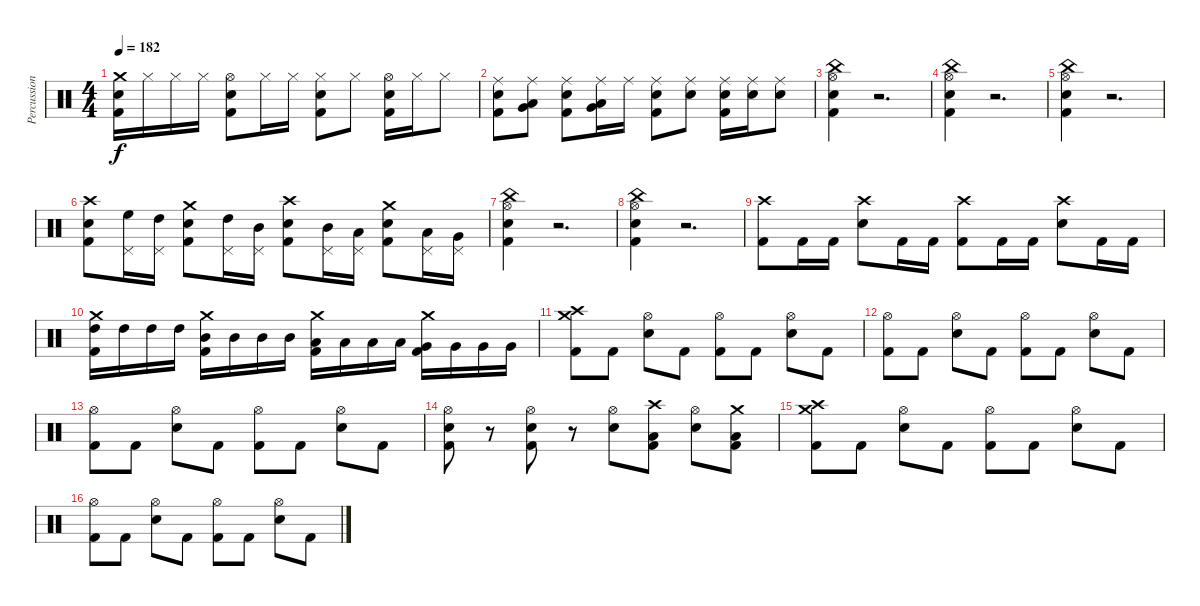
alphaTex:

\track ("Percussion" "Percussion") {instrument percussion}
\staff {score}
\articulation defaults
\ts (4 4)
\tempo 182
\clef neutral
\ks c
("Crash medium (hit)" "Snare (hit) 2" "Kick (hit) 2").16{dy f} "Hi-Hat (closed)".16 "Hi-Hat (closed)".16 "Hi-Hat (closed)".16 ("Hi-Hat (open)" "Snare (hit) 2" "Kick (hit) 2").8 "Hi-Hat (closed)".16 "Hi-Hat (closed)".16 ("Hi-Hat (closed)" "Snare (hit) 2" "Kick (hit) 2").8 "Hi-Hat (closed)".8 ("Hi-Hat (open)" "Snare (hit) 2" "Kick (hit) 2").16 "Hi-Hat (closed)".16 "Hi-Hat (closed)".8 |
("Ride (middle)" "Snare (hit) 2" "Kick (hit) 2").8 ("Ride (middle)" "Very Low Tom (hit)" "Low Floor Tom (hit)").8 ("Ride (middle)" "Snare (hit) 2" "Kick (hit) 2").8 ("Ride (middle)" "Very Low Tom (hit)" "Low Floor Tom (hit)").16 "Ride (middle)".16 ("Ride (middle)" "Snare (hit) 2" "Kick (hit) 2").8 ("Ride (middle)" "Snare (hit) 2").8 ("Ride (middle)" "Snare (hit) 2" "Kick (hit) 2").16 ("Ride (middle)" "Snare (hit) 2").16 ("Ride (middle)" "Snare (hit) 2").8 |
("Hi-Hat (open)" "China (hit)" "Snare (hit) 2" "Kick (hit) 2").4 r.2{d} |
("Hi-Hat (open)" "China (hit)" "Snare (hit) 2" "Kick (hit) 2").4 r.2{d} |
("Hi-Hat (open)" "China (hit)" "Snare (hit) 2" "Kick (hit) 2").4 r.2{d} |
("Crash high (hit)" "Snare (hit) 2" "Kick (hit) 2").8 ("Pedal Hi-Hat (hit)" "High Floor Tom (hit)").16 ("Pedal Hi-Hat (hit)" "High Tom (hit)").16 ("Crash medium (hit)" "Snare (hit) 2" "Kick (hit) 2").8 ("Pedal Hi-Hat (hit)" "High Tom (hit)").16 ("Pedal Hi-Hat (hit)" "Mid Tom (hit)").16 ("Crash high (hit)" "Snare (hit) 2" "Kick (hit) 2").8 ("Pedal Hi-Hat (hit)" "Mid Tom (hit)").16 ("Pedal Hi-Hat (hit)" "Low Tom (hit)").16 ("Crash medium (hit)" "Snare (hit) 2" "Kick (hit) 2").8 ("Pedal Hi-Hat (hit)" "Low Tom (hit)").16 ("Pedal Hi-Hat (hit)" "Very Low Tom (hit)").16 |
("Hi-Hat (open)" "China (hit)" "Snare (hit) 2" "Kick (hit) 2").4 r.2{d} |
("Hi-Hat (open)" "China (hit)" "Snare (hit) 2" "Kick (hit) 2").4 r.2{d} |
("Crash high (hit)" "Kick (hit) 2").8 "Kick (hit) 2".16 "Kick (hit) 2".16 ("Crash high (hit)" "Snare (hit) 2").8 "Kick (hit) 2".16 "Kick (hit) 2".16 ("Crash high (hit)" "Kick (hit) 2").8 "Kick (hit) 2".16 "Kick (hit) 2".16 ("Crash high (hit)" "Snare (hit) 2").8 "Kick (hit) 2".16 "Kick (hit) 2".16 |
("Crash medium (hit)" "High Tom (hit)" "Kick (hit) 2").16 "High Tom (hit)".16 "High Tom (hit)".16 "High Tom (hit)".16 ("Crash medium (hit)" "Mid Tom (hit)" "Kick (hit) 2").16 "Mid Tom (hit)".16 "Mid Tom (hit)".16 "Mid Tom (hit)".16 ("Crash medium (hit)" "Low Tom (hit)" "Kick (hit) 2").16 "Low Tom (hit)".16 "Low Tom (hit)".16 "Low Tom (hit)".16 ("Crash medium (hit)" "Very Low Tom (hit)" "Kick (hit) 2").16 "Very Low Tom (hit)".16 "Very Low Tom (hit)".16 "Very Low Tom (hit)".16 |
("Crash high (hit)" "Crash medium (hit)" "Kick (hit) 2").8 "Kick (hit) 2".8 ("Hi-Hat (open)" "Snare (hit) 2").8 "Kick (hit) 2".8 ("Hi-Hat (open)" "Kick (hit) 2").8 "Kick (hit) 2".8 ("Hi-Hat (open)" "Snare (hit) 2").8 "Kick (hit) 2".8 |
("Hi-Hat (open)" "Kick (hit) 2").8 "Kick (hit) 2".8 ("Hi-Hat (open)" "Snare (hit) 2").8 "Kick (hit) 2".8 ("Hi-Hat (open)" "Kick (hit) 2").8 "Kick (hit) 2".8 ("Hi-Hat (open)" "Snare (hit) 2").8 "Kick (hit) 2".8 |
("Hi-Hat (open)" "Kick (hit) 2").8 "Kick (hit) 2".8 ("Hi-Hat (open)" "Snare (hit) 2").8 "Kick (hit) 2".8 ("Hi-Hat (open)" "Kick (hit) 2").8 "Kick (hit) 2".8 ("Hi-Hat (open)" "Snare (hit) 2").8 "Kick (hit) 2".8 |
("Hi-Hat (open)" "Snare (hit) 2" "Kick (hit) 2").8 r.8 ("Hi-Hat (open)" "Snare (hit) 2" "Kick (hit) 2").8 r.8 ("Hi-Hat (open)" "Snare (hit) 2").8 ("Crash high (hit)" "Low Floor Tom (hit)" "Kick (hit) 2").8 ("Hi-Hat (open)" "Snare (hit) 2").8 ("Crash medium (hit)" "Low Floor Tom (hit)" "Kick (hit) 2").8 |
("Crash high (hit)" "Crash medium (hit)" "Kick (hit) 2").8 "Kick (hit) 2".8 ("Hi-Hat (open)" "Snare (hit) 2").8 "Kick (hit) 2".8 ("Hi-Hat (open)" "Kick (hit) 2").8 "Kick (hit) 2".8 ("Hi-Hat (open)" "Snare (hit) 2").8 "Kick (hit) 2".8 |
("Hi-Hat (open)" "Kick (hit) 2").8 "Kick (hit) 2".8 ("Hi-Hat (open)" "Snare (hit) 2").8 "Kick (hit) 2".8 ("Hi-Hat (open)" "Kick (hit) 2").8 "Kick (hit) 2".8 ("Hi-Hat (open)" "Snare (hit) 2").8 "Kick (hit) 2".8
